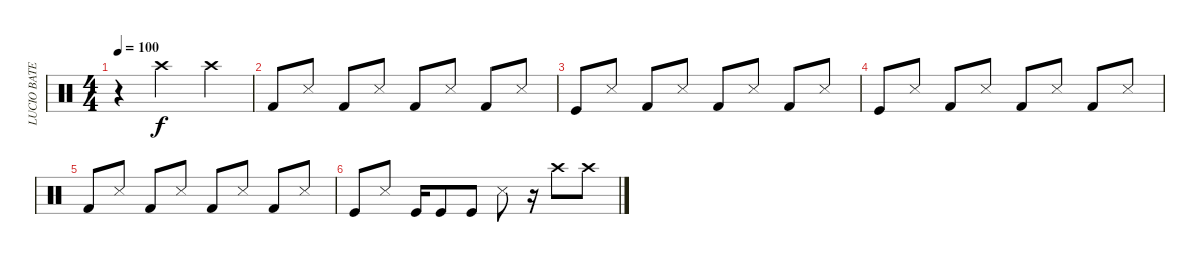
\track ("LUCIO BATERIA" "LUCIO BATE") {instrument percussion}
\staff {score}
\articulation defaults
\ts (4 4)
\tempo 100
\clef neutral
\ks c
r.4{dy f} "Crash high (hit)".2 "Crash high (hit)".4 |
"Kick (hit) 2".8 "Snare (side stick) 3".8 "Kick (hit) 2".8 "Snare (side stick) 3".8 "Kick (hit) 2".8 "Snare (side stick) 3".8 "Kick (hit) 2".8 "Snare (side stick) 3".8 |
"Kick (hit)".8 "Snare (side stick) 3".8 "Kick (hit) 2".8 "Snare (side stick) 3".8 "Kick (hit) 2".8 "Snare (side stick) 3".8 "Kick (hit) 2".8 "Snare (side stick) 3".8 |
"Kick (hit)".8 "Snare (side stick) 3".8 "Kick (hit) 2".8 "Snare (side stick) 3".8 "Kick (hit) 2".8 "Snare (side stick) 3".8 "Kick (hit) 2".8 "Snare (side stick) 3".8 |
"Kick (hit) 2".8 "Snare (side stick) 3".8 "Kick (hit) 2".8 "Snare (side stick) 3".8 "Kick (hit) 2".8 "Snare (side stick) 3".8 "Kick (hit) 2".8 "Snare (side stick) 3".8 |
"Kick (hit)".8 "Snare (side stick) 3".8 "Kick (hit)".16 "Kick (hit)".8 "Kick (hit)".8 "Snare (side stick) 3".8 r.16 "Crash high (hit)".8 "Crash high (hit)".8
